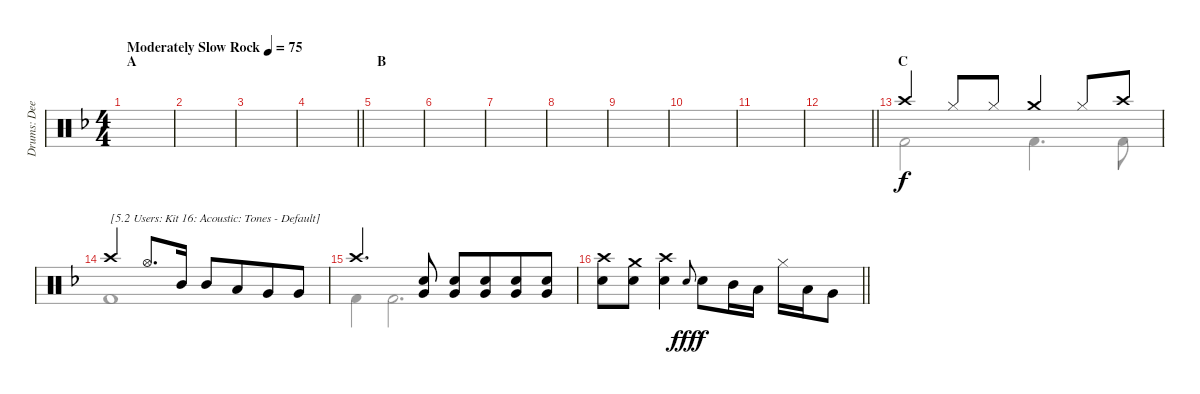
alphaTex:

\track ("Drums: Deen" "Drums: Dee") {instrument percussion}
\staff {score}
\articulation defaults
\voice
\ts (4 4)
\section ("" "A")
\tempo (75 "Moderately Slow Rock")
\clef neutral
\ks f
|
|
|
\barLineRight lightlight
|
\section ("" "B")
|
|
|
|
|
|
|
\barLineRight lightlight
|
\section ("" "C")
"Crash high (hit)".4 "Hi-Hat (closed)".8 "Hi-Hat (closed)".8 "Crash medium (hit)".4 "Hi-Hat (closed)".8 "Crash high (hit)".8 |
"Crash high (hit)".4{txt "[5.2 Users: Kit 16: Acoustic: Tones - Default]"} "Hi-Hat (open)".8{d} "Mid Tom (hit)".16 "Mid Tom (hit)".8 "Low Tom (hit)".8{beam merge} "Very Low Tom (hit)".8 "Very Low Tom (hit)".8 |
"Crash high (hit)".4{d} ("Snare (hit) 2" "Very Low Tom (hit)").8 ("Snare (hit) 2" "Very Low Tom (hit)").8 ("Snare (hit) 2" "Very Low Tom (hit)").8{beam merge} ("Snare (hit) 2" "Very Low Tom (hit)").8 ("Snare (hit) 2" "Very Low Tom (hit)").8 |
\barLineRight lightlight
("Crash high (hit)" "Snare (hit) 2").8 ("Crash medium (hit)" "Snare (hit) 2").8 ("Crash high (hit)" "Snare (hit) 2").4 "Electric Snare (hit)".8{gr onbeat dy fff} "Snare (hit) 2".8{dy f} "Mid Tom (hit)".16 "Low Tom (hit)".16 "Hi-Hat (closed)".16 "Low Tom (hit)".16 "Very Low Tom (hit)".8
\voice
\clef neutral
\ottava regular
\simile none
\ks f
|
|
|
\barLineRight lightlight
|
|
|
|
|
|
|
|
\barLineRight lightlight
|
"Kick (hit) 2".2 "Kick (hit) 2".4{d} "Kick (hit) 2".8 |
"Kick (hit) 2".1 |
"Kick (hit) 2".4 "Kick (hit) 2".2{d} |
\barLineRight lightlight
